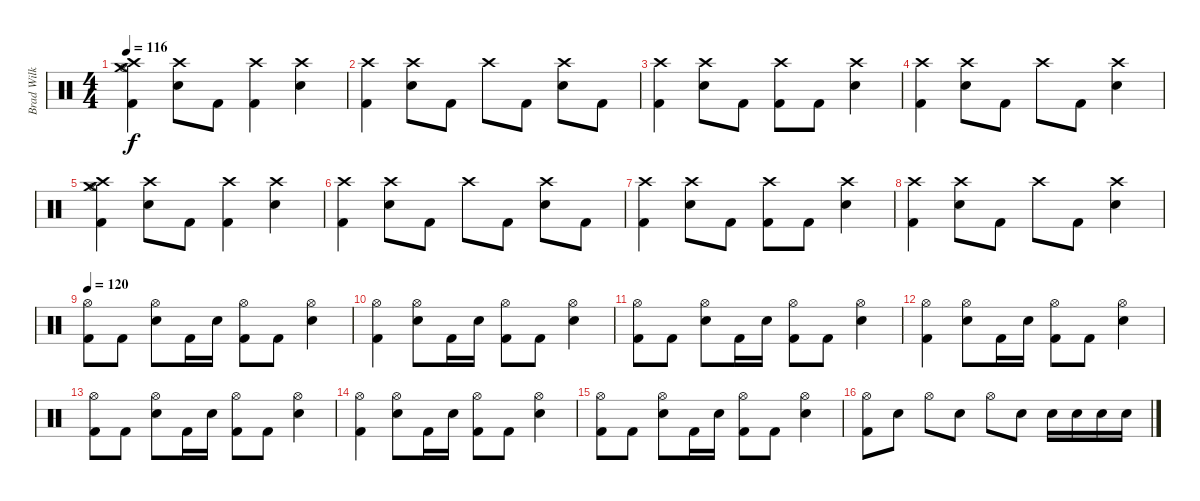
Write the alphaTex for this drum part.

\track ("Brad Wilk" "Brad Wilk") {instrument percussion}
\staff {score}
\articulation defaults
\ts (4 4)
\tempo 116
\clef neutral
\ks c
("Crash high (hit)" "Kick (hit) 2" "Crash medium (hit)" "Hi-Hat (open)").4{dy f} ("Crash high (hit)" "Snare (hit) 2").8 "Kick (hit) 2".8 ("Crash high (hit)" "Kick (hit) 2").4 ("Crash high (hit)" "Snare (hit) 2").4 |
("Crash high (hit)" "Kick (hit) 2").4 ("Crash high (hit)" "Snare (hit) 2").8 "Kick (hit) 2".8 "Crash high (hit)".8 "Kick (hit) 2".8 ("Crash high (hit)" "Snare (hit) 2").8 "Kick (hit) 2".8 |
("Crash high (hit)" "Kick (hit) 2").4 ("Crash high (hit)" "Snare (hit) 2").8 "Kick (hit) 2".8 ("Crash high (hit)" "Kick (hit) 2").8 "Kick (hit) 2".8 ("Crash high (hit)" "Snare (hit) 2").4 |
("Crash high (hit)" "Kick (hit) 2").4 ("Crash high (hit)" "Snare (hit) 2").8 "Kick (hit) 2".8 "Crash high (hit)".8 "Kick (hit) 2".8 ("Crash high (hit)" "Snare (hit) 2").4 |
("Crash high (hit)" "Kick (hit) 2" "Crash medium (hit)" "Hi-Hat (open)").4 ("Crash high (hit)" "Snare (hit) 2").8 "Kick (hit) 2".8 ("Crash high (hit)" "Kick (hit) 2").4 ("Crash high (hit)" "Snare (hit) 2").4 |
("Crash high (hit)" "Kick (hit) 2").4 ("Crash high (hit)" "Snare (hit) 2").8 "Kick (hit) 2".8 "Crash high (hit)".8 "Kick (hit) 2".8 ("Crash high (hit)" "Snare (hit) 2").8 "Kick (hit) 2".8 |
("Crash high (hit)" "Kick (hit) 2").4 ("Crash high (hit)" "Snare (hit) 2").8 "Kick (hit) 2".8 ("Crash high (hit)" "Kick (hit) 2").8 "Kick (hit) 2".8 ("Crash high (hit)" "Snare (hit) 2").4 |
("Crash high (hit)" "Kick (hit) 2").4 ("Crash high (hit)" "Snare (hit) 2").8 "Kick (hit) 2".8 "Crash high (hit)".8 "Kick (hit) 2".8 ("Crash high (hit)" "Snare (hit) 2").4 |
\tempo 120
("Hi-Hat (open)" "Kick (hit) 2").8 "Kick (hit) 2".8 ("Hi-Hat (open)" "Snare (hit) 2").8 "Kick (hit) 2".16 "Snare (hit) 2".16 ("Hi-Hat (open)" "Kick (hit) 2").8 "Kick (hit) 2".8 ("Hi-Hat (open)" "Snare (hit) 2").4 |
("Hi-Hat (open)" "Kick (hit) 2").4 ("Hi-Hat (open)" "Snare (hit) 2").8 "Kick (hit) 2".16 "Snare (hit) 2".16 ("Hi-Hat (open)" "Kick (hit) 2").8 "Kick (hit) 2".8 ("Hi-Hat (open)" "Snare (hit) 2").4 |
("Hi-Hat (open)" "Kick (hit) 2").8 "Kick (hit) 2".8 ("Hi-Hat (open)" "Snare (hit) 2").8 "Kick (hit) 2".16 "Snare (hit) 2".16 ("Hi-Hat (open)" "Kick (hit) 2").8 "Kick (hit) 2".8 ("Hi-Hat (open)" "Snare (hit) 2").4 |
("Hi-Hat (open)" "Kick (hit) 2").4 ("Hi-Hat (open)" "Snare (hit) 2").8 "Kick (hit) 2".16 "Snare (hit) 2".16 ("Hi-Hat (open)" "Kick (hit) 2").8 "Kick (hit) 2".8 ("Hi-Hat (open)" "Snare (hit) 2").4 |
("Hi-Hat (open)" "Kick (hit) 2").8 "Kick (hit) 2".8 ("Hi-Hat (open)" "Snare (hit) 2").8 "Kick (hit) 2".16 "Snare (hit) 2".16 ("Hi-Hat (open)" "Kick (hit) 2").8 "Kick (hit) 2".8 ("Hi-Hat (open)" "Snare (hit) 2").4 |
("Hi-Hat (open)" "Kick (hit) 2").4 ("Hi-Hat (open)" "Snare (hit) 2").8 "Kick (hit) 2".16 "Snare (hit) 2".16 ("Hi-Hat (open)" "Kick (hit) 2").8 "Kick (hit) 2".8 ("Hi-Hat (open)" "Snare (hit) 2").4 |
("Hi-Hat (open)" "Kick (hit) 2").8 "Kick (hit) 2".8 ("Hi-Hat (open)" "Snare (hit) 2").8 "Kick (hit) 2".16 "Snare (hit) 2".16 ("Hi-Hat (open)" "Kick (hit) 2").8 "Kick (hit) 2".8 ("Hi-Hat (open)" "Snare (hit) 2").4 |
("Hi-Hat (open)" "Kick (hit) 2").8 "Snare (hit) 2".8 "Hi-Hat (open)".8 "Snare (hit) 2".8 "Hi-Hat (open)".8 "Snare (hit) 2".8 "Snare (hit) 2".16 "Snare (hit) 2".16 "Snare (hit) 2".16 "Snare (hit) 2".16
